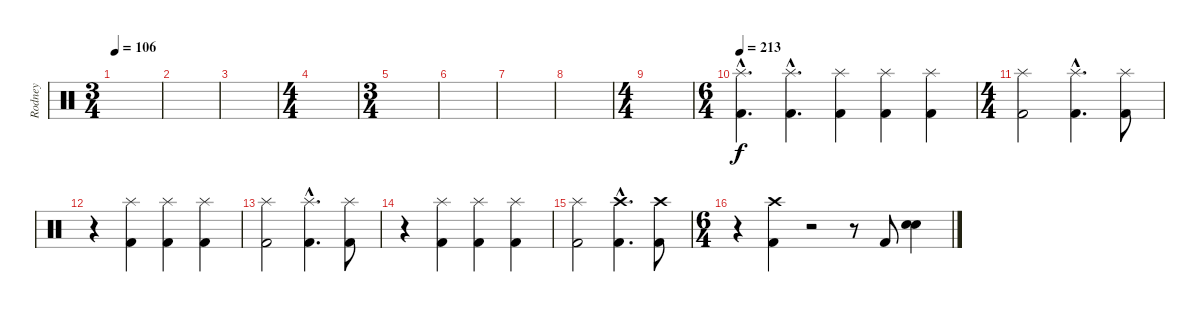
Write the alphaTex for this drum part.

\track ("Rodney" "Rodney") {instrument percussion}
\staff {score}
\articulation defaults
\ts (3 4)
\tempo 106
\clef neutral
\ks c
|
|
|
\ts (4 4)
|
\ts (3 4)
|
|
|
|
\ts (4 4)
|
\ts (6 4)
\tempo 213
("Splash (hit)"{hac} "Kick (hit) 2"{hac}).4{d} ("Splash (hit)"{hac} "Kick (hit) 2"{hac}).4{d} ("Splash (hit)" "Kick (hit) 2").4 ("Splash (hit)" "Kick (hit) 2").4 ("Splash (hit)" "Kick (hit) 2").4 |
\ts (4 4)
("Splash (hit)" "Kick (hit) 2").2 ("Splash (hit)"{hac} "Kick (hit) 2"{hac}).4{d} ("Splash (hit)" "Kick (hit) 2").8 |
r.4 ("Splash (hit)" "Kick (hit) 2").4 ("Splash (hit)" "Kick (hit) 2").4 ("Splash (hit)" "Kick (hit) 2").4 |
("Splash (hit)" "Kick (hit) 2").2 ("Splash (hit)"{hac} "Kick (hit) 2"{hac}).4{d} ("Splash (hit)" "Kick (hit) 2").8 |
r.4 ("Splash (hit)" "Kick (hit) 2").4 ("Splash (hit)" "Kick (hit) 2").4 ("Splash (hit)" "Kick (hit) 2").4 |
("Splash (hit)" "Kick (hit) 2").2 ("Crash high (hit)"{hac} "Kick (hit) 2"{hac}).4{d} ("Crash high (hit)" "Kick (hit) 2").8 |
\ts (6 4)
r.4 ("Crash high (hit)" "Kick (hit) 2").4 r.2 r.8 "Kick (hit) 2".8 ("Snare (hit) 2" "Snare (hit) 2").4
